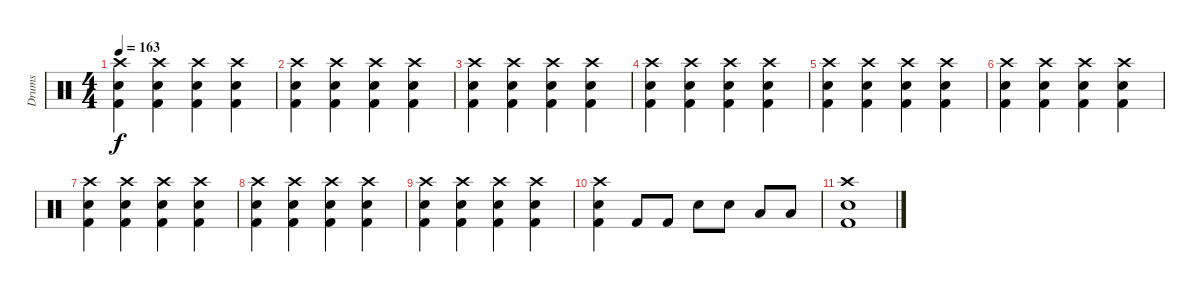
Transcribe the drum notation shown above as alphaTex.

\track ("Drums" "Drums") {instrument percussion}
\staff {score}
\articulation defaults
\ts (4 4)
\tempo 163
\clef neutral
\ks c
("Crash high (hit)" "Snare (hit) 2" "Kick (hit) 2").4{dy f} ("Crash high (hit)" "Snare (hit) 2" "Kick (hit) 2").4 ("Crash high (hit)" "Snare (hit) 2" "Kick (hit) 2").4 ("Crash high (hit)" "Snare (hit) 2" "Kick (hit) 2").4 |
("Crash high (hit)" "Snare (hit) 2" "Kick (hit) 2").4 ("Crash high (hit)" "Snare (hit) 2" "Kick (hit) 2").4 ("Crash high (hit)" "Snare (hit) 2" "Kick (hit) 2").4 ("Crash high (hit)" "Snare (hit) 2" "Kick (hit) 2").4 |
("Crash high (hit)" "Snare (hit) 2" "Kick (hit) 2").4 ("Crash high (hit)" "Snare (hit) 2" "Kick (hit) 2").4 ("Crash high (hit)" "Snare (hit) 2" "Kick (hit) 2").4 ("Crash high (hit)" "Snare (hit) 2" "Kick (hit) 2").4 |
("Crash high (hit)" "Snare (hit) 2" "Kick (hit) 2").4 ("Crash high (hit)" "Snare (hit) 2" "Kick (hit) 2").4 ("Crash high (hit)" "Snare (hit) 2" "Kick (hit) 2").4 ("Crash high (hit)" "Snare (hit) 2" "Kick (hit) 2").4 |
("Crash high (hit)" "Snare (hit) 2" "Kick (hit) 2").4 ("Crash high (hit)" "Snare (hit) 2" "Kick (hit) 2").4 ("Crash high (hit)" "Snare (hit) 2" "Kick (hit) 2").4 ("Crash high (hit)" "Snare (hit) 2" "Kick (hit) 2").4 |
("Crash high (hit)" "Snare (hit) 2" "Kick (hit) 2").4 ("Crash high (hit)" "Snare (hit) 2" "Kick (hit) 2").4 ("Crash high (hit)" "Snare (hit) 2" "Kick (hit) 2").4 ("Crash high (hit)" "Snare (hit) 2" "Kick (hit) 2").4 |
("Crash high (hit)" "Snare (hit) 2" "Kick (hit) 2").4 ("Crash high (hit)" "Snare (hit) 2" "Kick (hit) 2").4 ("Crash high (hit)" "Snare (hit) 2" "Kick (hit) 2").4 ("Crash high (hit)" "Snare (hit) 2" "Kick (hit) 2").4 |
("Crash high (hit)" "Snare (hit) 2" "Kick (hit) 2").4 ("Crash high (hit)" "Snare (hit) 2" "Kick (hit) 2").4 ("Crash high (hit)" "Snare (hit) 2" "Kick (hit) 2").4 ("Crash high (hit)" "Snare (hit) 2" "Kick (hit) 2").4 |
("Crash high (hit)" "Snare (hit) 2" "Kick (hit) 2").4 ("Crash high (hit)" "Snare (hit) 2" "Kick (hit) 2").4 ("Crash high (hit)" "Snare (hit) 2" "Kick (hit) 2").4 ("Crash high (hit)" "Snare (hit) 2" "Kick (hit) 2").4 |
("Crash high (hit)" "Snare (hit) 2" "Kick (hit) 2").4 "Kick (hit) 2".8 "Kick (hit) 2".8 "Snare (hit) 2".8 "Snare (hit) 2".8 "Low Tom (hit)".8 "Low Tom (hit)".8 |
("Crash high (hit)" "Snare (hit) 2" "Kick (hit) 2").1
